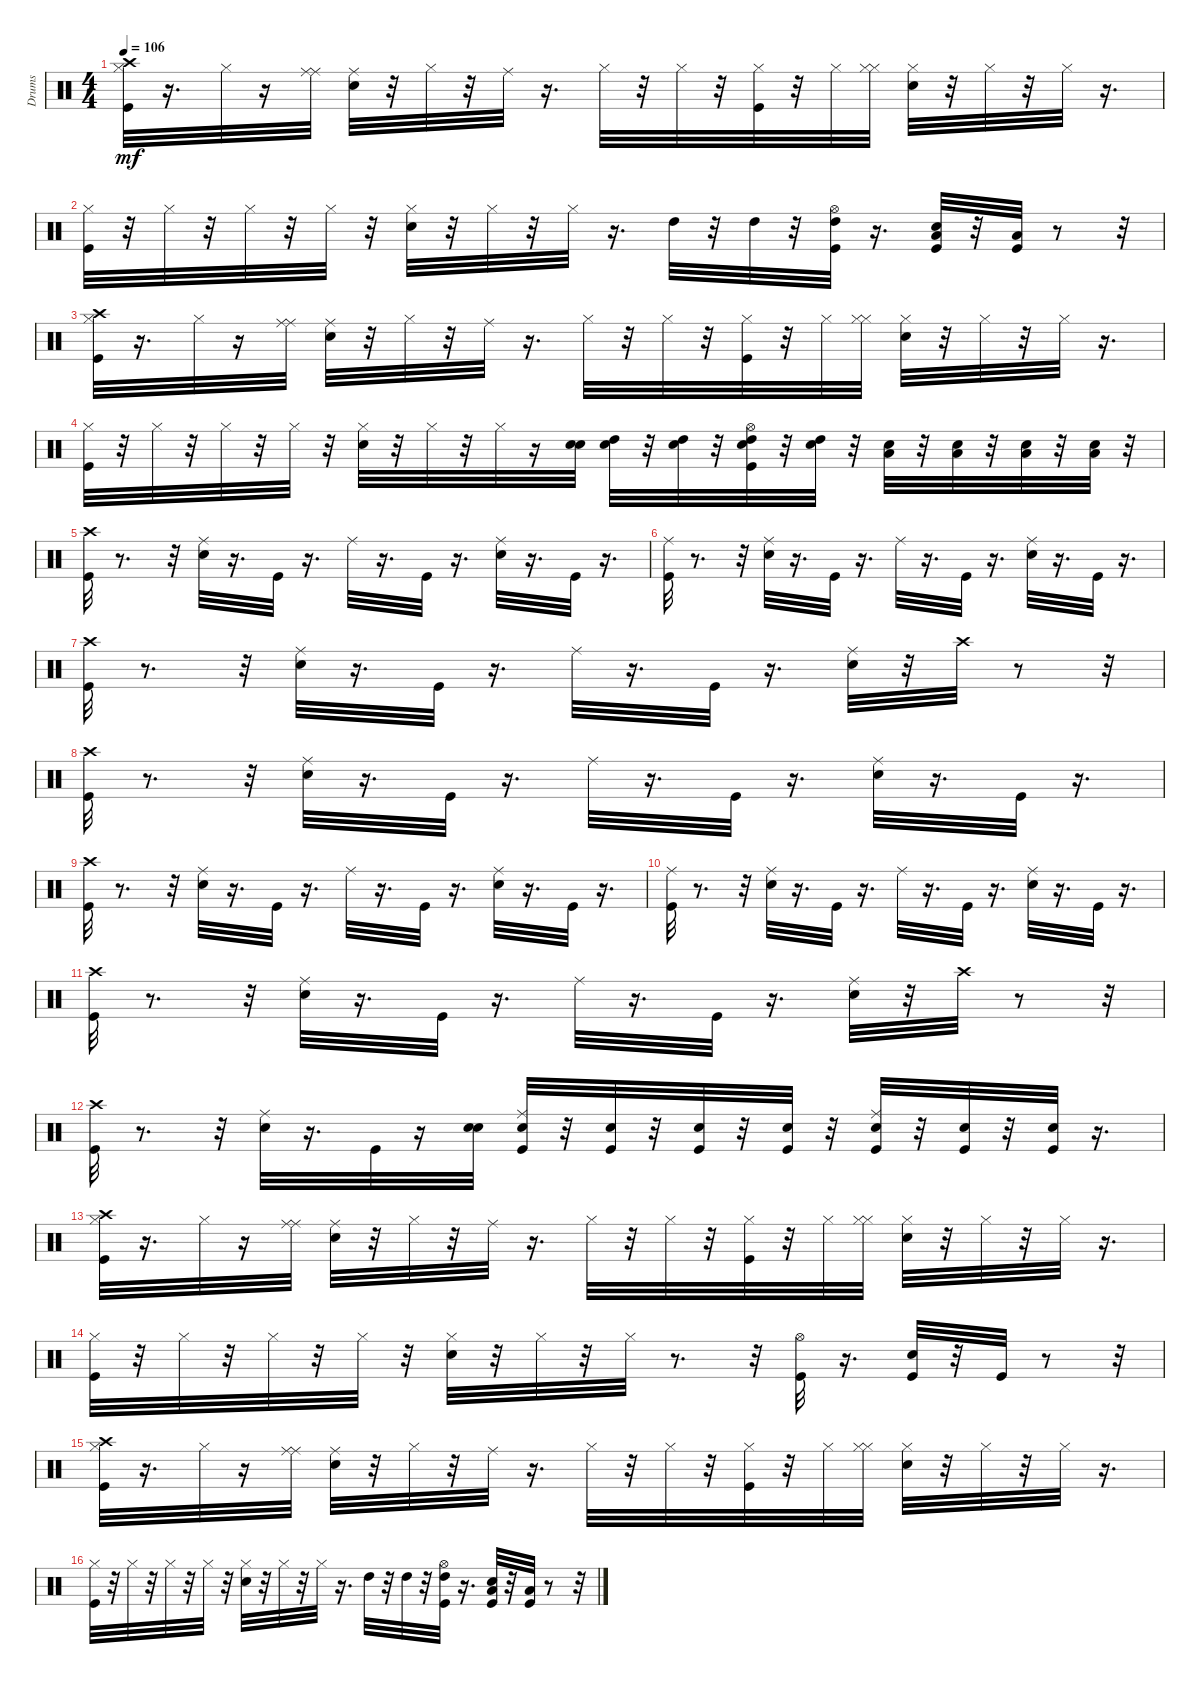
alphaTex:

\track ("Drums               " "Drums     ") {instrument percussion}
\staff {score}
\articulation defaults
\ts (4 4)
\tempo 106
\clef neutral
\ks c
("Crash high (hit)" "Hi-Hat (closed)" "Kick (hit)").32{dy mf} r.16{d} "Hi-Hat (closed)".32 r.16 ("Ride (middle)" "Ride (middle)").32 ("Ride (middle)" "Snare (hit) 2").32 r.32 "Hi-Hat (closed)".32 r.32 "Ride (middle)".32 r.16{d} "Hi-Hat (closed)".32 r.32 "Hi-Hat (closed)".32 r.32 ("Hi-Hat (closed)" "Kick (hit)").32 r.32 "Hi-Hat (closed)".32 ("Hi-Hat (closed)" "Hi-Hat (closed)").32 ("Hi-Hat (closed)" "Snare (hit) 2").32 r.32 "Hi-Hat (closed)".32 r.32 "Hi-Hat (closed)".32 r.16{d} |
("Hi-Hat (closed)" "Kick (hit)").32 r.32 "Hi-Hat (closed)".32 r.32 "Hi-Hat (closed)".32 r.32 "Hi-Hat (closed)".32 r.32 ("Snare (hit) 2" "Hi-Hat (closed)").32 r.32 "Hi-Hat (closed)".32 r.32 "Hi-Hat (closed)".32 r.16{d} "High Tom (hit)".32 r.32 "High Tom (hit)".32 r.32 ("Hi-Hat (open)" "Kick (hit)" "High Tom (hit)").32 r.16{d} ("Kick (hit)" "Snare (hit) 2" "Low Tom (hit)").32 r.32 ("Kick (hit)" "Low Tom (hit)").32 r.8 r.32 |
("Crash high (hit)" "Hi-Hat (closed)" "Kick (hit)").32 r.16{d} "Hi-Hat (closed)".32 r.16 ("Ride (middle)" "Ride (middle)").32 ("Ride (middle)" "Snare (hit) 2").32 r.32 "Hi-Hat (closed)".32 r.32 "Ride (middle)".32 r.16{d} "Hi-Hat (closed)".32 r.32 "Hi-Hat (closed)".32 r.32 ("Hi-Hat (closed)" "Kick (hit)").32 r.32 "Hi-Hat (closed)".32 ("Hi-Hat (closed)" "Hi-Hat (closed)").32 ("Hi-Hat (closed)" "Snare (hit) 2").32 r.32 "Hi-Hat (closed)".32 r.32 "Hi-Hat (closed)".32 r.16{d} |
("Hi-Hat (closed)" "Kick (hit)").32 r.32 "Hi-Hat (closed)".32 r.32 "Hi-Hat (closed)".32 r.32 "Hi-Hat (closed)".32 r.32 ("Snare (hit) 2" "Hi-Hat (closed)").32 r.32 "Hi-Hat (closed)".32 r.32 "Hi-Hat (closed)".32 r.16 ("Snare (hit) 2" "Snare (hit) 2").32 ("Snare (hit) 2" "High Tom (hit)").32 r.32 ("Snare (hit) 2" "High Tom (hit)").32 r.32 ("Hi-Hat (open)" "Snare (hit) 2" "Kick (hit)" "High Tom (hit)").32 r.32 ("Snare (hit) 2" "High Tom (hit)").32 r.32 ("Snare (hit) 2" "Low Tom (hit)").32 r.32 ("Snare (hit) 2" "Low Tom (hit)").32 r.32 ("Snare (hit) 2" "Low Tom (hit)").32 r.32 ("Snare (hit) 2" "Low Tom (hit)").32 r.32 |
("Kick (hit)" "Crash high (hit)").32 r.8{d} r.32 ("Ride (middle)" "Snare (hit) 2").32 r.16{d} "Kick (hit)".32 r.16{d} "Ride (middle)".32 r.16{d} "Kick (hit)".32 r.16{d} ("Ride (middle)" "Snare (hit) 2").32 r.16{d} "Kick (hit)".32 r.16{d} |
("Ride (middle)" "Kick (hit)").32 r.8{d} r.32 ("Ride (middle)" "Snare (hit) 2").32 r.16{d} "Kick (hit)".32 r.16{d} "Ride (middle)".32 r.16{d} "Kick (hit)".32 r.16{d} ("Ride (middle)" "Snare (hit) 2").32 r.16{d} "Kick (hit)".32 r.16{d} |
("Kick (hit)" "Crash high (hit)").32 r.8{d} r.32 ("Ride (middle)" "Snare (hit) 2").32 r.16{d} "Kick (hit)".32 r.16{d} "Ride (middle)".32 r.16{d} "Kick (hit)".32 r.16{d} ("Ride (middle)" "Snare (hit) 2").32 r.32 "Crash high (hit)".32 r.8 r.32 |
("Kick (hit)" "Crash high (hit)").32 r.8{d} r.32 ("Ride (middle)" "Snare (hit) 2").32 r.16{d} "Kick (hit)".32 r.16{d} "Ride (middle)".32 r.16{d} "Kick (hit)".32 r.16{d} ("Ride (middle)" "Snare (hit) 2").32 r.16{d} "Kick (hit)".32 r.16{d} |
("Kick (hit)" "Crash high (hit)").32 r.8{d} r.32 ("Ride (middle)" "Snare (hit) 2").32 r.16{d} "Kick (hit)".32 r.16{d} "Ride (middle)".32 r.16{d} "Kick (hit)".32 r.16{d} ("Ride (middle)" "Snare (hit) 2").32 r.16{d} "Kick (hit)".32 r.16{d} |
("Ride (middle)" "Kick (hit)").32 r.8{d} r.32 ("Ride (middle)" "Snare (hit) 2").32 r.16{d} "Kick (hit)".32 r.16{d} "Ride (middle)".32 r.16{d} "Kick (hit)".32 r.16{d} ("Ride (middle)" "Snare (hit) 2").32 r.16{d} "Kick (hit)".32 r.16{d} |
("Kick (hit)" "Crash high (hit)").32 r.8{d} r.32 ("Ride (middle)" "Snare (hit) 2").32 r.16{d} "Kick (hit)".32 r.16{d} "Ride (middle)".32 r.16{d} "Kick (hit)".32 r.16{d} ("Ride (middle)" "Snare (hit) 2").32 r.32 "Crash high (hit)".32 r.8 r.32 |
("Kick (hit)" "Crash high (hit)").32 r.8{d} r.32 ("Ride (middle)" "Snare (hit) 2").32 r.16{d} "Kick (hit)".32 r.16 ("Snare (hit) 2" "Snare (hit) 2").32 ("Ride (middle)" "Snare (hit) 2" "Kick (hit)").32 r.32 ("Snare (hit) 2" "Kick (hit)").32 r.32 ("Kick (hit)" "Snare (hit) 2").32 r.32 ("Snare (hit) 2" "Kick (hit)").32 r.32 ("Ride (middle)" "Snare (hit) 2" "Kick (hit)").32 r.32 ("Snare (hit) 2" "Kick (hit)").32 r.32 ("Kick (hit)" "Snare (hit) 2").32 r.16{d} |
("Crash high (hit)" "Hi-Hat (closed)" "Kick (hit)").32 r.16{d} "Hi-Hat (closed)".32 r.16 ("Ride (middle)" "Ride (middle)").32 ("Ride (middle)" "Snare (hit) 2").32 r.32 "Hi-Hat (closed)".32 r.32 "Ride (middle)".32 r.16{d} "Hi-Hat (closed)".32 r.32 "Hi-Hat (closed)".32 r.32 ("Hi-Hat (closed)" "Kick (hit)").32 r.32 "Hi-Hat (closed)".32 ("Hi-Hat (closed)" "Hi-Hat (closed)").32 ("Hi-Hat (closed)" "Snare (hit) 2").32 r.32 "Hi-Hat (closed)".32 r.32 "Hi-Hat (closed)".32 r.16{d} |
("Hi-Hat (closed)" "Kick (hit)").32 r.32 "Hi-Hat (closed)".32 r.32 "Hi-Hat (closed)".32 r.32 "Hi-Hat (closed)".32 r.32 ("Snare (hit) 2" "Hi-Hat (closed)").32 r.32 "Hi-Hat (closed)".32 r.32 "Hi-Hat (closed)".32 r.8{d} r.32 ("Hi-Hat (open)" "Kick (hit)").32 r.16{d} ("Kick (hit)" "Snare (hit) 2").32 r.32 "Kick (hit)".32 r.8 r.32 |
("Crash high (hit)" "Hi-Hat (closed)" "Kick (hit)").32 r.16{d} "Hi-Hat (closed)".32 r.16 ("Ride (middle)" "Ride (middle)").32 ("Ride (middle)" "Snare (hit) 2").32 r.32 "Hi-Hat (closed)".32 r.32 "Ride (middle)".32 r.16{d} "Hi-Hat (closed)".32 r.32 "Hi-Hat (closed)".32 r.32 ("Hi-Hat (closed)" "Kick (hit)").32 r.32 "Hi-Hat (closed)".32 ("Hi-Hat (closed)" "Hi-Hat (closed)").32 ("Hi-Hat (closed)" "Snare (hit) 2").32 r.32 "Hi-Hat (closed)".32 r.32 "Hi-Hat (closed)".32 r.16{d} |
("Hi-Hat (closed)" "Kick (hit)").32 r.32 "Hi-Hat (closed)".32 r.32 "Hi-Hat (closed)".32 r.32 "Hi-Hat (closed)".32 r.32 ("Snare (hit) 2" "Hi-Hat (closed)").32 r.32 "Hi-Hat (closed)".32 r.32 "Hi-Hat (closed)".32 r.16{d} "High Tom (hit)".32 r.32 "High Tom (hit)".32 r.32 ("Hi-Hat (open)" "Kick (hit)" "High Tom (hit)").32 r.16{d} ("Kick (hit)" "Snare (hit) 2" "Low Tom (hit)").32 r.32 ("Kick (hit)" "Low Tom (hit)").32 r.8 r.32
